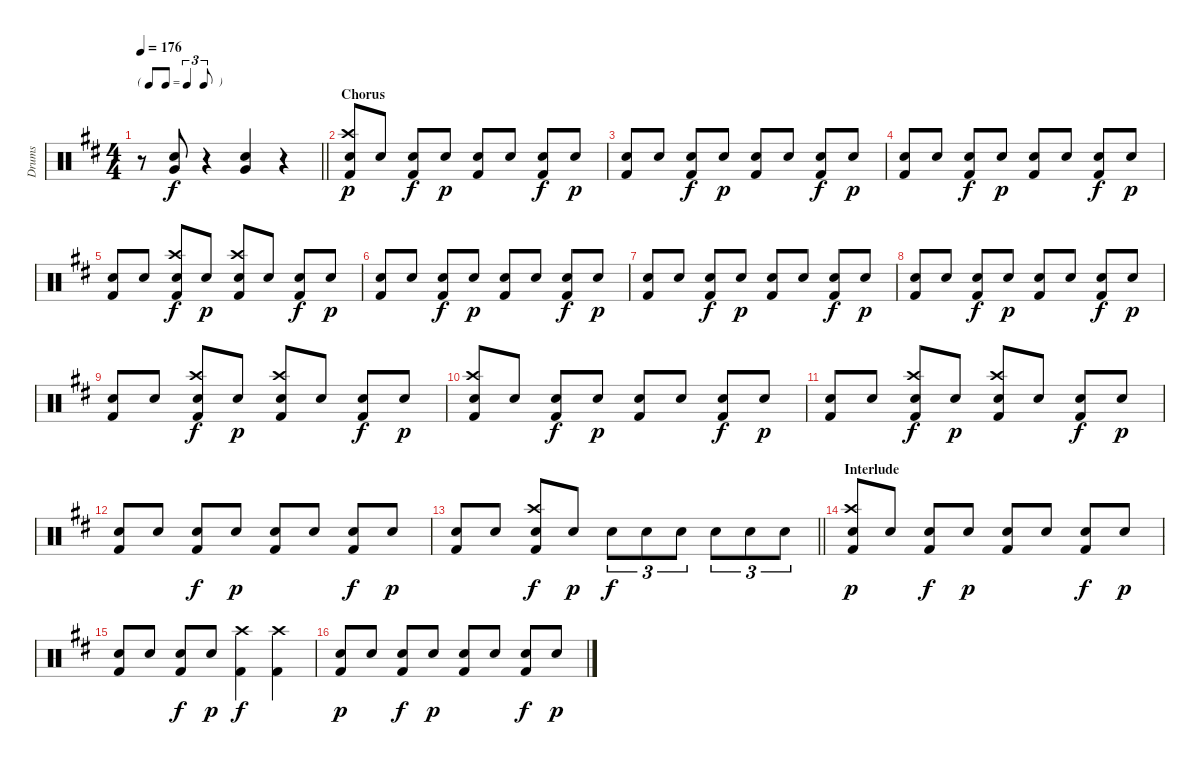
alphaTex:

\track ("Drums" "Drums") {instrument percussion}
\staff {score}
\articulation defaults
\ts (4 4)
\tf triplet8th
\tempo 176
\clef neutral
\barLineRight lightlight
\ks d
r.8{dy f} ("Snare (hit) 2" "Very Low Tom (hit)").8 r.4 ("Snare (hit) 2" "Very Low Tom (hit)").4 r.4 |
\section ("" "Chorus")
("Crash high (hit)" "Snare (hit) 2" "Kick (hit) 2").8{dy p} "Snare (hit) 2".8 ("Snare (hit) 2" "Kick (hit) 2").8{dy f} "Snare (hit) 2".8{dy p} ("Snare (hit) 2" "Kick (hit) 2").8 "Snare (hit) 2".8 ("Snare (hit) 2" "Kick (hit) 2").8{dy f} "Snare (hit) 2".8{dy p} |
("Snare (hit) 2" "Kick (hit) 2").8 "Snare (hit) 2".8 ("Snare (hit) 2" "Kick (hit) 2").8{dy f} "Snare (hit) 2".8{dy p} ("Snare (hit) 2" "Kick (hit) 2").8 "Snare (hit) 2".8 ("Snare (hit) 2" "Kick (hit) 2").8{dy f} "Snare (hit) 2".8{dy p} |
("Snare (hit) 2" "Kick (hit) 2").8 "Snare (hit) 2".8 ("Snare (hit) 2" "Kick (hit) 2").8{dy f} "Snare (hit) 2".8{dy p} ("Snare (hit) 2" "Kick (hit) 2").8 "Snare (hit) 2".8 ("Snare (hit) 2" "Kick (hit) 2").8{dy f} "Snare (hit) 2".8{dy p} |
("Snare (hit) 2" "Kick (hit) 2").8 "Snare (hit) 2".8 ("Crash high (hit)" "Snare (hit) 2" "Kick (hit) 2").8{dy f} "Snare (hit) 2".8{dy p} ("Crash high (hit)" "Snare (hit) 2" "Kick (hit) 2").8 "Snare (hit) 2".8 ("Snare (hit) 2" "Kick (hit) 2").8{dy f} "Snare (hit) 2".8{dy p} |
("Snare (hit) 2" "Kick (hit) 2").8 "Snare (hit) 2".8 ("Snare (hit) 2" "Kick (hit) 2").8{dy f} "Snare (hit) 2".8{dy p} ("Snare (hit) 2" "Kick (hit) 2").8 "Snare (hit) 2".8 ("Snare (hit) 2" "Kick (hit) 2").8{dy f} "Snare (hit) 2".8{dy p} |
("Snare (hit) 2" "Kick (hit) 2").8 "Snare (hit) 2".8 ("Snare (hit) 2" "Kick (hit) 2").8{dy f} "Snare (hit) 2".8{dy p} ("Snare (hit) 2" "Kick (hit) 2").8 "Snare (hit) 2".8 ("Snare (hit) 2" "Kick (hit) 2").8{dy f} "Snare (hit) 2".8{dy p} |
("Snare (hit) 2" "Kick (hit) 2").8 "Snare (hit) 2".8 ("Snare (hit) 2" "Kick (hit) 2").8{dy f} "Snare (hit) 2".8{dy p} ("Snare (hit) 2" "Kick (hit) 2").8 "Snare (hit) 2".8 ("Snare (hit) 2" "Kick (hit) 2").8{dy f} "Snare (hit) 2".8{dy p} |
("Snare (hit) 2" "Kick (hit) 2").8 "Snare (hit) 2".8 ("Crash high (hit)" "Snare (hit) 2" "Kick (hit) 2").8{dy f} "Snare (hit) 2".8{dy p} ("Crash high (hit)" "Snare (hit) 2" "Kick (hit) 2").8 "Snare (hit) 2".8 ("Snare (hit) 2" "Kick (hit) 2").8{dy f} "Snare (hit) 2".8{dy p} |
("Crash high (hit)" "Snare (hit) 2" "Kick (hit) 2").8 "Snare (hit) 2".8 ("Snare (hit) 2" "Kick (hit) 2").8{dy f} "Snare (hit) 2".8{dy p} ("Snare (hit) 2" "Kick (hit) 2").8 "Snare (hit) 2".8 ("Snare (hit) 2" "Kick (hit) 2").8{dy f} "Snare (hit) 2".8{dy p} |
("Snare (hit) 2" "Kick (hit) 2").8 "Snare (hit) 2".8 ("Crash high (hit)" "Snare (hit) 2" "Kick (hit) 2").8{dy f} "Snare (hit) 2".8{dy p} ("Crash high (hit)" "Snare (hit) 2" "Kick (hit) 2").8 "Snare (hit) 2".8 ("Snare (hit) 2" "Kick (hit) 2").8{dy f} "Snare (hit) 2".8{dy p} |
("Snare (hit) 2" "Kick (hit) 2").8 "Snare (hit) 2".8 ("Snare (hit) 2" "Kick (hit) 2").8{dy f} "Snare (hit) 2".8{dy p} ("Snare (hit) 2" "Kick (hit) 2").8 "Snare (hit) 2".8 ("Snare (hit) 2" "Kick (hit) 2").8{dy f} "Snare (hit) 2".8{dy p} |
\barLineRight lightlight
("Snare (hit) 2" "Kick (hit) 2").8 "Snare (hit) 2".8 ("Crash high (hit)" "Snare (hit) 2" "Kick (hit) 2").8{dy f} "Snare (hit) 2".8{dy p} "Snare (hit) 2".8{tu (3 2) dy f} "Snare (hit) 2".8{tu (3 2)} "Snare (hit) 2".8{tu (3 2)} "Snare (hit) 2".8{tu (3 2)} "Snare (hit) 2".8{tu (3 2)} "Snare (hit) 2".8{tu (3 2)} |
\section ("" "Interlude")
("Crash high (hit)" "Snare (hit) 2" "Kick (hit) 2").8{dy p} "Snare (hit) 2".8 ("Snare (hit) 2" "Kick (hit) 2").8{dy f} "Snare (hit) 2".8{dy p} ("Snare (hit) 2" "Kick (hit) 2").8 "Snare (hit) 2".8 ("Snare (hit) 2" "Kick (hit) 2").8{dy f} "Snare (hit) 2".8{dy p} |
("Snare (hit) 2" "Kick (hit) 2").8 "Snare (hit) 2".8 ("Snare (hit) 2" "Kick (hit) 2").8{dy f} "Snare (hit) 2".8{dy p} ("Crash high (hit)" "Kick (hit) 2").4{dy f} ("Crash high (hit)" "Kick (hit) 2").4 |
("Snare (hit) 2" "Kick (hit) 2").8{dy p} "Snare (hit) 2".8 ("Snare (hit) 2" "Kick (hit) 2").8{dy f} "Snare (hit) 2".8{dy p} ("Snare (hit) 2" "Kick (hit) 2").8 "Snare (hit) 2".8 ("Snare (hit) 2" "Kick (hit) 2").8{dy f} "Snare (hit) 2".8{dy p}
